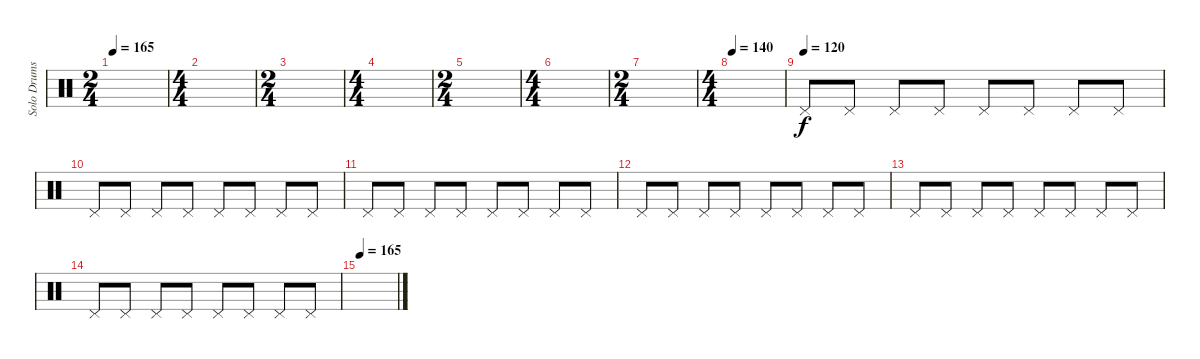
\track ("Solo Drums" "Solo Drums") {instrument percussion}
\staff {score}
\articulation defaults
\ts (2 4)
\tempo 165
\clef neutral
\ks c
|
\ts (4 4)
|
\ts (2 4)
|
\ts (4 4)
|
\ts (2 4)
|
\ts (4 4)
|
\ts (2 4)
|
\ts (4 4)
\tempo 140
|
\tempo (120)
"Pedal Hi-Hat (hit)".8 "Pedal Hi-Hat (hit)".8 "Pedal Hi-Hat (hit)".8 "Pedal Hi-Hat (hit)".8 "Pedal Hi-Hat (hit)".8 "Pedal Hi-Hat (hit)".8 "Pedal Hi-Hat (hit)".8 "Pedal Hi-Hat (hit)".8 |
"Pedal Hi-Hat (hit)".8 "Pedal Hi-Hat (hit)".8 "Pedal Hi-Hat (hit)".8 "Pedal Hi-Hat (hit)".8 "Pedal Hi-Hat (hit)".8 "Pedal Hi-Hat (hit)".8 "Pedal Hi-Hat (hit)".8 "Pedal Hi-Hat (hit)".8 |
"Pedal Hi-Hat (hit)".8 "Pedal Hi-Hat (hit)".8 "Pedal Hi-Hat (hit)".8 "Pedal Hi-Hat (hit)".8 "Pedal Hi-Hat (hit)".8 "Pedal Hi-Hat (hit)".8 "Pedal Hi-Hat (hit)".8 "Pedal Hi-Hat (hit)".8 |
"Pedal Hi-Hat (hit)".8 "Pedal Hi-Hat (hit)".8 "Pedal Hi-Hat (hit)".8 "Pedal Hi-Hat (hit)".8 "Pedal Hi-Hat (hit)".8 "Pedal Hi-Hat (hit)".8 "Pedal Hi-Hat (hit)".8 "Pedal Hi-Hat (hit)".8 |
"Pedal Hi-Hat (hit)".8 "Pedal Hi-Hat (hit)".8 "Pedal Hi-Hat (hit)".8 "Pedal Hi-Hat (hit)".8 "Pedal Hi-Hat (hit)".8 "Pedal Hi-Hat (hit)".8 "Pedal Hi-Hat (hit)".8 "Pedal Hi-Hat (hit)".8 |
"Pedal Hi-Hat (hit)".8 "Pedal Hi-Hat (hit)".8 "Pedal Hi-Hat (hit)".8 "Pedal Hi-Hat (hit)".8 "Pedal Hi-Hat (hit)".8 "Pedal Hi-Hat (hit)".8 "Pedal Hi-Hat (hit)".8 "Pedal Hi-Hat (hit)".8 |
\tempo 165
